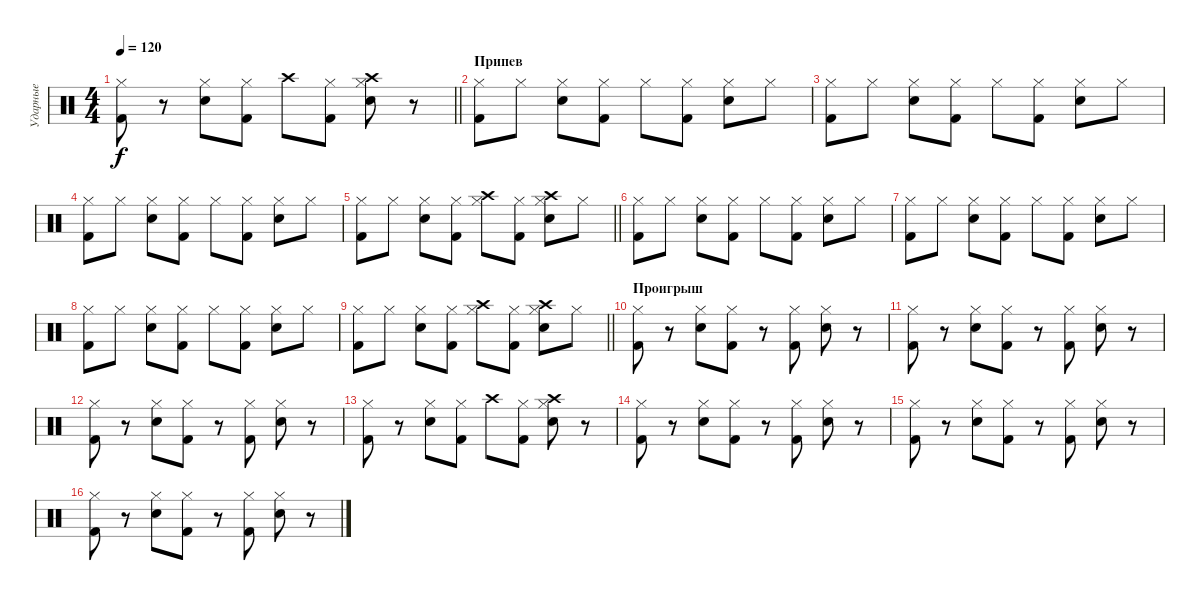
\track ("Ударные" "Ударные") {instrument percussion}
\staff {score}
\articulation defaults
\ts (4 4)
\tempo 120
\clef neutral
\barLineRight lightlight
\ks c
("Kick (hit) 2" "Hi-Hat (closed)").8{dy f} r.8 ("Snare (hit) 2" "Hi-Hat (closed)").8 ("Kick (hit) 2" "Hi-Hat (closed)").8 "Crash high (hit)".8 ("Kick (hit) 2" "Hi-Hat (closed)").8 ("Snare (hit) 2" "Hi-Hat (closed)" "Crash high (hit)").8 r.8 |
\section ("" "Припев")
("Kick (hit) 2" "Hi-Hat (closed)").8 "Hi-Hat (closed)".8 ("Snare (hit) 2" "Hi-Hat (closed)").8 ("Kick (hit) 2" "Hi-Hat (closed)").8 "Hi-Hat (closed)".8 ("Kick (hit) 2" "Hi-Hat (closed)").8 ("Snare (hit) 2" "Hi-Hat (closed)").8 "Hi-Hat (closed)".8 |
("Kick (hit) 2" "Hi-Hat (closed)").8 "Hi-Hat (closed)".8 ("Snare (hit) 2" "Hi-Hat (closed)").8 ("Kick (hit) 2" "Hi-Hat (closed)").8 "Hi-Hat (closed)".8 ("Kick (hit) 2" "Hi-Hat (closed)").8 ("Snare (hit) 2" "Hi-Hat (closed)").8 "Hi-Hat (closed)".8 |
("Kick (hit) 2" "Hi-Hat (closed)").8 "Hi-Hat (closed)".8 ("Snare (hit) 2" "Hi-Hat (closed)").8 ("Kick (hit) 2" "Hi-Hat (closed)").8 "Hi-Hat (closed)".8 ("Kick (hit) 2" "Hi-Hat (closed)").8 ("Snare (hit) 2" "Hi-Hat (closed)").8 "Hi-Hat (closed)".8 |
\barLineRight lightlight
("Kick (hit) 2" "Hi-Hat (closed)").8 "Hi-Hat (closed)".8 ("Snare (hit) 2" "Hi-Hat (closed)").8 ("Kick (hit) 2" "Hi-Hat (closed)").8 ("Hi-Hat (closed)" "Crash high (hit)").8 ("Kick (hit) 2" "Hi-Hat (closed)").8 ("Snare (hit) 2" "Hi-Hat (closed)" "Crash high (hit)").8 "Hi-Hat (closed)".8 |
("Kick (hit) 2" "Hi-Hat (closed)").8 "Hi-Hat (closed)".8 ("Snare (hit) 2" "Hi-Hat (closed)").8 ("Kick (hit) 2" "Hi-Hat (closed)").8 "Hi-Hat (closed)".8 ("Kick (hit) 2" "Hi-Hat (closed)").8 ("Snare (hit) 2" "Hi-Hat (closed)").8 "Hi-Hat (closed)".8 |
("Kick (hit) 2" "Hi-Hat (closed)").8 "Hi-Hat (closed)".8 ("Snare (hit) 2" "Hi-Hat (closed)").8 ("Kick (hit) 2" "Hi-Hat (closed)").8 "Hi-Hat (closed)".8 ("Kick (hit) 2" "Hi-Hat (closed)").8 ("Snare (hit) 2" "Hi-Hat (closed)").8 "Hi-Hat (closed)".8 |
("Kick (hit) 2" "Hi-Hat (closed)").8 "Hi-Hat (closed)".8 ("Snare (hit) 2" "Hi-Hat (closed)").8 ("Kick (hit) 2" "Hi-Hat (closed)").8 "Hi-Hat (closed)".8 ("Kick (hit) 2" "Hi-Hat (closed)").8 ("Snare (hit) 2" "Hi-Hat (closed)").8 "Hi-Hat (closed)".8 |
\barLineRight lightlight
("Kick (hit) 2" "Hi-Hat (closed)").8 "Hi-Hat (closed)".8 ("Snare (hit) 2" "Hi-Hat (closed)").8 ("Kick (hit) 2" "Hi-Hat (closed)").8 ("Hi-Hat (closed)" "Crash high (hit)").8 ("Kick (hit) 2" "Hi-Hat (closed)").8 ("Snare (hit) 2" "Hi-Hat (closed)" "Crash high (hit)").8 "Hi-Hat (closed)".8 |
\section ("" "Проигрыш")
("Kick (hit) 2" "Hi-Hat (closed)").8 r.8 ("Snare (hit) 2" "Hi-Hat (closed)").8 ("Kick (hit) 2" "Hi-Hat (closed)").8 r.8 ("Kick (hit) 2" "Hi-Hat (closed)").8 ("Snare (hit) 2" "Hi-Hat (closed)").8 r.8 |
("Kick (hit) 2" "Hi-Hat (closed)").8 r.8 ("Snare (hit) 2" "Hi-Hat (closed)").8 ("Kick (hit) 2" "Hi-Hat (closed)").8 r.8 ("Kick (hit) 2" "Hi-Hat (closed)").8 ("Snare (hit) 2" "Hi-Hat (closed)").8 r.8 |
("Kick (hit) 2" "Hi-Hat (closed)").8 r.8 ("Snare (hit) 2" "Hi-Hat (closed)").8 ("Kick (hit) 2" "Hi-Hat (closed)").8 r.8 ("Kick (hit) 2" "Hi-Hat (closed)").8 ("Snare (hit) 2" "Hi-Hat (closed)").8 r.8 |
("Kick (hit) 2" "Hi-Hat (closed)").8 r.8 ("Snare (hit) 2" "Hi-Hat (closed)").8 ("Kick (hit) 2" "Hi-Hat (closed)").8 "Crash high (hit)".8 ("Kick (hit) 2" "Hi-Hat (closed)").8 ("Snare (hit) 2" "Hi-Hat (closed)" "Crash high (hit)").8 r.8 |
("Kick (hit) 2" "Hi-Hat (closed)").8 r.8 ("Snare (hit) 2" "Hi-Hat (closed)").8 ("Kick (hit) 2" "Hi-Hat (closed)").8 r.8 ("Kick (hit) 2" "Hi-Hat (closed)").8 ("Snare (hit) 2" "Hi-Hat (closed)").8 r.8 |
("Kick (hit) 2" "Hi-Hat (closed)").8 r.8 ("Snare (hit) 2" "Hi-Hat (closed)").8 ("Kick (hit) 2" "Hi-Hat (closed)").8 r.8 ("Kick (hit) 2" "Hi-Hat (closed)").8 ("Snare (hit) 2" "Hi-Hat (closed)").8 r.8 |
("Kick (hit) 2" "Hi-Hat (closed)").8 r.8 ("Snare (hit) 2" "Hi-Hat (closed)").8 ("Kick (hit) 2" "Hi-Hat (closed)").8 r.8 ("Kick (hit) 2" "Hi-Hat (closed)").8 ("Snare (hit) 2" "Hi-Hat (closed)").8 r.8
